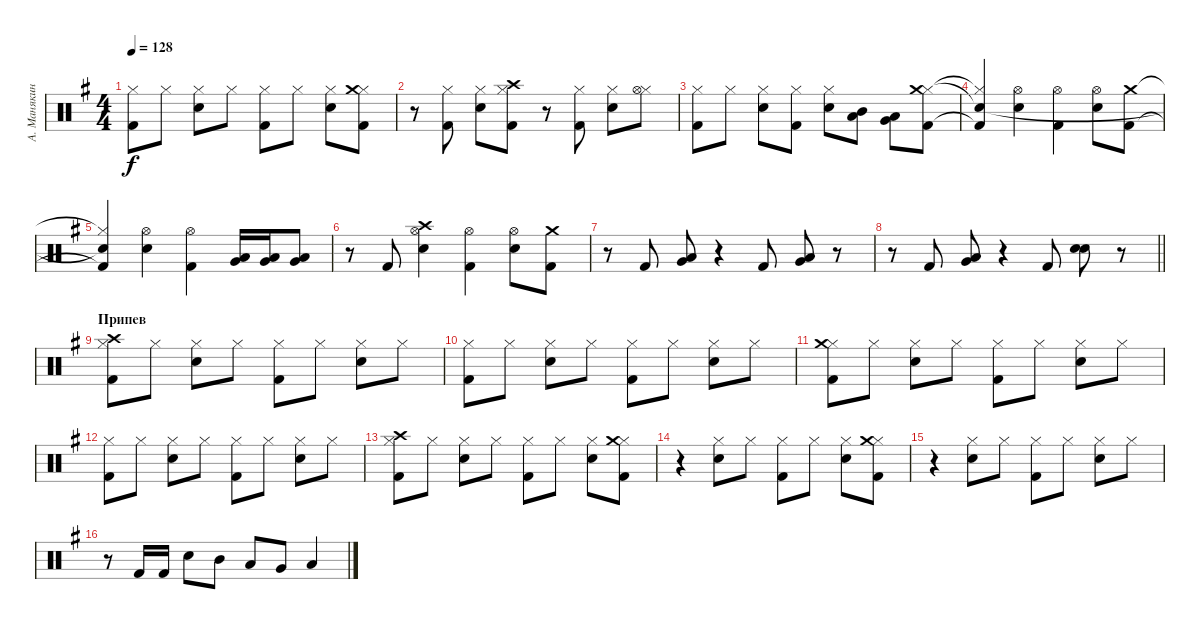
\track ("А. Манякин" "А. Манякин") {instrument percussion}
\staff {score}
\articulation defaults
\ts (4 4)
\tempo 128
\clef neutral
\ks g
("Kick (hit) 2" "Hi-Hat (closed)").8{dy f} "Hi-Hat (closed)".8 ("Electric Snare (hit)" "Hi-Hat (closed)").8 "Hi-Hat (closed)".8 ("Kick (hit) 2" "Hi-Hat (closed)").8 "Hi-Hat (closed)".8 ("Electric Snare (hit)" "Hi-Hat (closed)").8 ("Kick (hit) 2" "Hi-Hat (closed)" "Crash medium (hit)").8 |
r.8 ("Kick (hit) 2" "Hi-Hat (closed)").8 ("Electric Snare (hit)" "Hi-Hat (closed)").8 ("Kick (hit) 2" "Hi-Hat (closed)" "Crash high (hit)").8 r.8 ("Kick (hit) 2" "Hi-Hat (closed)").8 ("Electric Snare (hit)" "Hi-Hat (closed)").8 ("Hi-Hat (closed)" "Hi-Hat (open)").8 |
("Kick (hit) 2" "Hi-Hat (closed)").8 "Hi-Hat (closed)".8 ("Electric Snare (hit)" "Hi-Hat (closed)").8 ("Kick (hit) 2" "Hi-Hat (closed)").8 ("Electric Snare (hit)" "Hi-Hat (closed)").8 ("Mid Tom (hit)" "Low Tom (hit)").8 ("Low Tom (hit)" "Very Low Tom (hit)").8 ("Kick (hit) 2" "Hi-Hat (closed)" "Crash medium (hit)").8 |
("Kick (hit) 2"{t} "Hi-Hat (closed)"{t} "Snare (hit)"{t}).4 ("Electric Snare (hit)" "Hi-Hat (open)").4 ("Kick (hit) 2" "Hi-Hat (open)").4 ("Electric Snare (hit)" "Hi-Hat (open)").8 ("Kick (hit) 2" "Crash medium (hit)").8 |
("Kick (hit) 2"{t} "Hi-Hat (closed)"{t} "Snare (hit)"{t}).4 ("Electric Snare (hit)" "Hi-Hat (open)").4 ("Kick (hit) 2" "Hi-Hat (open)").4 ("Very Low Tom (hit)" "Low Tom (hit)").16 ("Very Low Tom (hit)" "Low Tom (hit)").16 ("Very Low Tom (hit)" "Low Tom (hit)").8 |
r.8 "Kick (hit) 2".8 ("Electric Snare (hit)" "Hi-Hat (open)" "Crash high (hit)").4 ("Kick (hit) 2" "Hi-Hat (open)").4 ("Electric Snare (hit)" "Hi-Hat (open)").8 ("Kick (hit) 2" "Crash medium (hit)").8 |
r.8 "Kick (hit) 2".8 ("Very Low Tom (hit)" "Low Tom (hit)").8 r.4 "Kick (hit) 2".8 ("Very Low Tom (hit)" "Low Tom (hit)").8 r.8 |
\barLineRight lightlight
r.8 "Kick (hit) 2".8 ("Very Low Tom (hit)" "Low Tom (hit)").8 r.4 "Kick (hit) 2".8 ("Electric Snare (hit)" "Electric Snare (hit)").8 r.8 |
\section ("" "Припев")
("Kick (hit) 2" "Hi-Hat (closed)" "Crash high (hit)").8 "Hi-Hat (closed)".8 ("Electric Snare (hit)" "Hi-Hat (closed)").8 "Hi-Hat (closed)".8 ("Kick (hit) 2" "Hi-Hat (closed)").8 "Hi-Hat (closed)".8 ("Electric Snare (hit)" "Hi-Hat (closed)").8 "Hi-Hat (closed)".8 |
("Kick (hit) 2" "Hi-Hat (closed)").8 "Hi-Hat (closed)".8 ("Electric Snare (hit)" "Hi-Hat (closed)").8 "Hi-Hat (closed)".8 ("Kick (hit) 2" "Hi-Hat (closed)").8 "Hi-Hat (closed)".8 ("Electric Snare (hit)" "Hi-Hat (closed)").8 "Hi-Hat (closed)".8 |
("Kick (hit) 2" "Hi-Hat (closed)" "Crash medium (hit)").8 "Hi-Hat (closed)".8 ("Electric Snare (hit)" "Hi-Hat (closed)").8 "Hi-Hat (closed)".8 ("Kick (hit) 2" "Hi-Hat (closed)").8 "Hi-Hat (closed)".8 ("Electric Snare (hit)" "Hi-Hat (closed)").8 "Hi-Hat (closed)".8 |
("Kick (hit) 2" "Hi-Hat (closed)").8 "Hi-Hat (closed)".8 ("Electric Snare (hit)" "Hi-Hat (closed)").8 "Hi-Hat (closed)".8 ("Kick (hit) 2" "Hi-Hat (closed)").8 "Hi-Hat (closed)".8 ("Electric Snare (hit)" "Hi-Hat (closed)").8 "Hi-Hat (closed)".8 |
("Kick (hit) 2" "Hi-Hat (closed)" "Crash high (hit)").8 "Hi-Hat (closed)".8 ("Electric Snare (hit)" "Hi-Hat (closed)").8 "Hi-Hat (closed)".8 ("Kick (hit) 2" "Hi-Hat (closed)").8 "Hi-Hat (closed)".8 ("Electric Snare (hit)" "Hi-Hat (closed)").8 ("Kick (hit) 2" "Hi-Hat (closed)" "Crash medium (hit)").8 |
r.4 ("Electric Snare (hit)" "Hi-Hat (closed)").8 "Hi-Hat (closed)".8 ("Kick (hit) 2" "Hi-Hat (closed)").8 "Hi-Hat (closed)".8 ("Electric Snare (hit)" "Hi-Hat (closed)").8 ("Kick (hit) 2" "Hi-Hat (closed)" "Crash medium (hit)").8 |
r.4 ("Electric Snare (hit)" "Hi-Hat (closed)").8 "Hi-Hat (closed)".8 ("Kick (hit) 2" "Hi-Hat (closed)").8 "Hi-Hat (closed)".8 ("Electric Snare (hit)" "Hi-Hat (closed)").8 "Hi-Hat (closed)".8 |
r.8 "Kick (hit) 2".16 "Kick (hit) 2".16 "Electric Snare (hit)".8 "Mid Tom (hit)".8 "Low Tom (hit)".8 "Very Low Tom (hit)".8 "Low Floor Tom (hit)".4
